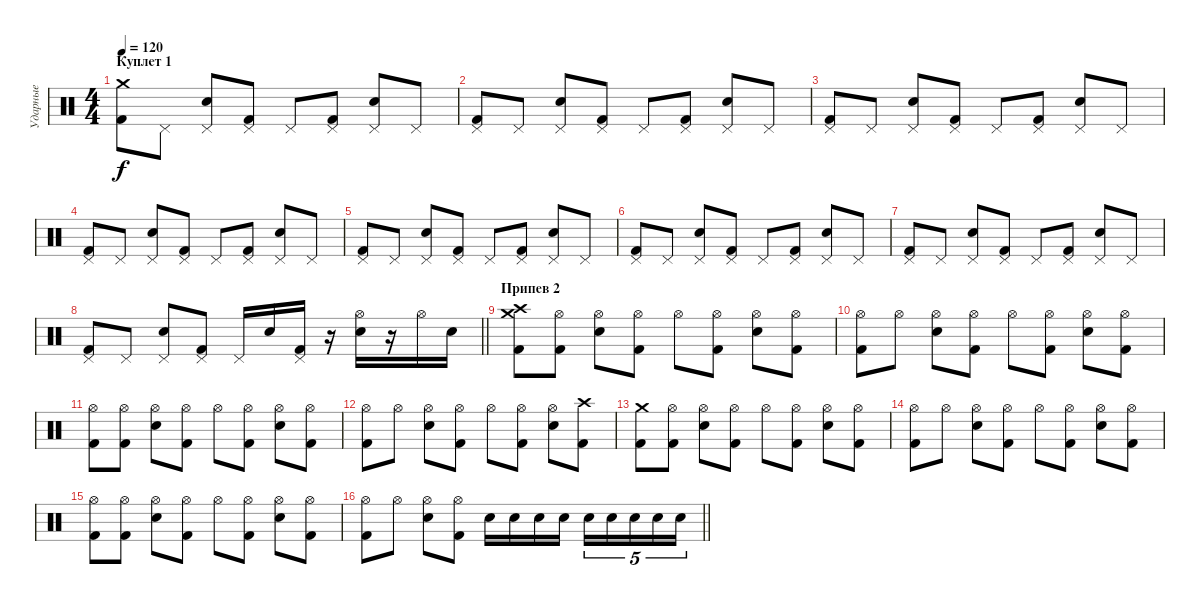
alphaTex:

\track ("Ударные" "Ударные") {instrument percussion}
\staff {score}
\articulation defaults
\ts (4 4)
\section ("" "Куплет 1")
\tempo 120
\clef neutral
\ks c
("Crash medium (hit)" "Kick (hit) 2").8{dy f} "Pedal Hi-Hat (hit)".8 ("Pedal Hi-Hat (hit)" "Snare (hit) 2").8 ("Pedal Hi-Hat (hit)" "Kick (hit) 2").8 "Pedal Hi-Hat (hit)".8 ("Pedal Hi-Hat (hit)" "Kick (hit) 2").8 ("Pedal Hi-Hat (hit)" "Snare (hit) 2").8 "Pedal Hi-Hat (hit)".8 |
("Pedal Hi-Hat (hit)" "Kick (hit) 2").8 "Pedal Hi-Hat (hit)".8 ("Pedal Hi-Hat (hit)" "Snare (hit) 2").8 ("Pedal Hi-Hat (hit)" "Kick (hit) 2").8 "Pedal Hi-Hat (hit)".8 ("Pedal Hi-Hat (hit)" "Kick (hit) 2").8 ("Pedal Hi-Hat (hit)" "Snare (hit) 2").8 "Pedal Hi-Hat (hit)".8 |
("Pedal Hi-Hat (hit)" "Kick (hit) 2").8 "Pedal Hi-Hat (hit)".8 ("Pedal Hi-Hat (hit)" "Snare (hit) 2").8 ("Pedal Hi-Hat (hit)" "Kick (hit) 2").8 "Pedal Hi-Hat (hit)".8 ("Pedal Hi-Hat (hit)" "Kick (hit) 2").8 ("Pedal Hi-Hat (hit)" "Snare (hit) 2").8 "Pedal Hi-Hat (hit)".8 |
("Pedal Hi-Hat (hit)" "Kick (hit) 2").8 "Pedal Hi-Hat (hit)".8 ("Pedal Hi-Hat (hit)" "Snare (hit) 2").8 ("Pedal Hi-Hat (hit)" "Kick (hit) 2").8 "Pedal Hi-Hat (hit)".8 ("Pedal Hi-Hat (hit)" "Kick (hit) 2").8 ("Pedal Hi-Hat (hit)" "Snare (hit) 2").8 "Pedal Hi-Hat (hit)".8 |
("Pedal Hi-Hat (hit)" "Kick (hit) 2").8 "Pedal Hi-Hat (hit)".8 ("Pedal Hi-Hat (hit)" "Snare (hit) 2").8 ("Pedal Hi-Hat (hit)" "Kick (hit) 2").8 "Pedal Hi-Hat (hit)".8 ("Pedal Hi-Hat (hit)" "Kick (hit) 2").8 ("Pedal Hi-Hat (hit)" "Snare (hit) 2").8 "Pedal Hi-Hat (hit)".8 |
("Pedal Hi-Hat (hit)" "Kick (hit) 2").8 "Pedal Hi-Hat (hit)".8 ("Pedal Hi-Hat (hit)" "Snare (hit) 2").8 ("Pedal Hi-Hat (hit)" "Kick (hit) 2").8 "Pedal Hi-Hat (hit)".8 ("Pedal Hi-Hat (hit)" "Kick (hit) 2").8 ("Pedal Hi-Hat (hit)" "Snare (hit) 2").8 "Pedal Hi-Hat (hit)".8 |
("Pedal Hi-Hat (hit)" "Kick (hit) 2").8 "Pedal Hi-Hat (hit)".8 ("Pedal Hi-Hat (hit)" "Snare (hit) 2").8 ("Pedal Hi-Hat (hit)" "Kick (hit) 2").8 "Pedal Hi-Hat (hit)".8 ("Pedal Hi-Hat (hit)" "Kick (hit) 2").8 ("Pedal Hi-Hat (hit)" "Snare (hit) 2").8 "Pedal Hi-Hat (hit)".8 |
\barLineRight lightlight
("Pedal Hi-Hat (hit)" "Kick (hit) 2").8 "Pedal Hi-Hat (hit)".8 ("Pedal Hi-Hat (hit)" "Snare (hit) 2").8 ("Pedal Hi-Hat (hit)" "Kick (hit) 2").8 "Pedal Hi-Hat (hit)".16 "Snare (hit) 2".16 ("Pedal Hi-Hat (hit)" "Kick (hit) 2").16 r.16 ("Hi-Hat (open)" "Snare (hit) 2").16 r.16 "Hi-Hat (open)".16 "Snare (hit) 2".16 |
\section ("" "Припев 2")
("Crash medium (hit)" "Crash high (hit)" "Kick (hit) 2").8 ("Hi-Hat (open)" "Kick (hit) 2").8 ("Hi-Hat (open)" "Snare (hit) 2").8 ("Hi-Hat (open)" "Kick (hit) 2").8 "Hi-Hat (open)".8 ("Hi-Hat (open)" "Kick (hit) 2").8 ("Hi-Hat (open)" "Snare (hit) 2").8 ("Hi-Hat (open)" "Kick (hit) 2").8 |
("Hi-Hat (open)" "Kick (hit) 2").8 "Hi-Hat (open)".8 ("Hi-Hat (open)" "Snare (hit) 2").8 ("Hi-Hat (open)" "Kick (hit) 2").8 "Hi-Hat (open)".8 ("Hi-Hat (open)" "Kick (hit) 2").8 ("Hi-Hat (open)" "Snare (hit) 2").8 ("Hi-Hat (open)" "Kick (hit) 2").8 |
("Hi-Hat (open)" "Kick (hit) 2").8 ("Hi-Hat (open)" "Kick (hit) 2").8 ("Hi-Hat (open)" "Snare (hit) 2").8 ("Hi-Hat (open)" "Kick (hit) 2").8 "Hi-Hat (open)".8 ("Hi-Hat (open)" "Kick (hit) 2").8 ("Hi-Hat (open)" "Snare (hit) 2").8 ("Hi-Hat (open)" "Kick (hit) 2").8 |
("Hi-Hat (open)" "Kick (hit) 2").8 "Hi-Hat (open)".8 ("Hi-Hat (open)" "Snare (hit) 2").8 ("Hi-Hat (open)" "Kick (hit) 2").8 "Hi-Hat (open)".8 ("Hi-Hat (open)" "Kick (hit) 2").8 ("Hi-Hat (open)" "Snare (hit) 2").8 ("Crash high (hit)" "Kick (hit) 2").8 |
("Crash medium (hit)" "Kick (hit) 2").8 ("Hi-Hat (open)" "Kick (hit) 2").8 ("Hi-Hat (open)" "Snare (hit) 2").8 ("Hi-Hat (open)" "Kick (hit) 2").8 "Hi-Hat (open)".8 ("Hi-Hat (open)" "Kick (hit) 2").8 ("Hi-Hat (open)" "Snare (hit) 2").8 ("Hi-Hat (open)" "Kick (hit) 2").8 |
("Hi-Hat (open)" "Kick (hit) 2").8 "Hi-Hat (open)".8 ("Hi-Hat (open)" "Snare (hit) 2").8 ("Hi-Hat (open)" "Kick (hit) 2").8 "Hi-Hat (open)".8 ("Hi-Hat (open)" "Kick (hit) 2").8 ("Hi-Hat (open)" "Snare (hit) 2").8 ("Hi-Hat (open)" "Kick (hit) 2").8 |
("Hi-Hat (open)" "Kick (hit) 2").8 ("Hi-Hat (open)" "Kick (hit) 2").8 ("Hi-Hat (open)" "Snare (hit) 2").8 ("Hi-Hat (open)" "Kick (hit) 2").8 "Hi-Hat (open)".8 ("Hi-Hat (open)" "Kick (hit) 2").8 ("Hi-Hat (open)" "Snare (hit) 2").8 ("Hi-Hat (open)" "Kick (hit) 2").8 |
\barLineRight lightlight
("Hi-Hat (open)" "Kick (hit) 2").8 "Hi-Hat (open)".8 ("Hi-Hat (open)" "Snare (hit) 2").8 ("Hi-Hat (open)" "Kick (hit) 2").8 "Snare (hit) 2".16 "Snare (hit) 2".16 "Snare (hit) 2".16 "Snare (hit) 2".16 "Snare (hit) 2".16{tu (5 4)} "Snare (hit) 2".16{tu (5 4)} "Snare (hit) 2".16{tu (5 4)} "Snare (hit) 2".16{tu (5 4)} "Snare (hit) 2".16{tu (5 4)}
